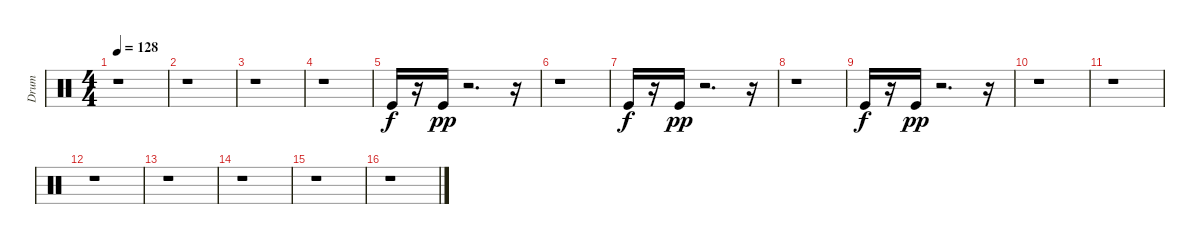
\track ("Drum" "Drum") {instrument percussion}
\staff {score}
\articulation defaults
\ts (4 4)
\tempo 128
\clef neutral
\ks c
r.1{dy pp} |
r.1 |
r.1 |
r.1 |
"Kick (hit)".16{dy f} r.16 "Kick (hit)".16{dy pp} r.2{d} r.16 |
r.1 |
"Kick (hit)".16{dy f} r.16 "Kick (hit)".16{dy pp} r.2{d} r.16 |
r.1 |
"Kick (hit)".16{dy f} r.16 "Kick (hit)".16{dy pp} r.2{d} r.16 |
r.1 |
r.1 |
r.1 |
r.1 |
r.1 |
r.1 |
r.1
